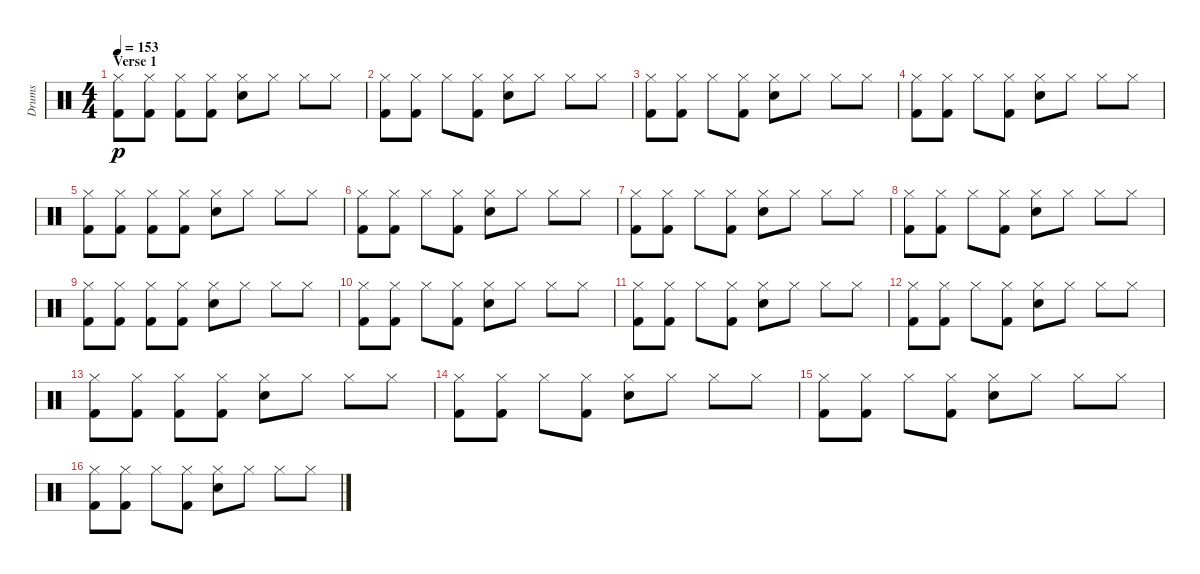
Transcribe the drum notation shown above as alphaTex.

\track ("Drums" "Drums") {instrument percussion}
\staff {score}
\articulation defaults
\ts (4 4)
\section ("" "Verse 1")
\tempo 153
\clef neutral
\ks c
("Hi-Hat (closed)" "Kick (hit) 2").8{dy p} ("Hi-Hat (closed)" "Kick (hit) 2").8 ("Hi-Hat (closed)" "Kick (hit) 2").8 ("Hi-Hat (closed)" "Kick (hit) 2").8 ("Hi-Hat (closed)" "Electric Snare (hit)").8 "Hi-Hat (closed)".8 "Hi-Hat (closed)".8 "Hi-Hat (closed)".8 |
("Hi-Hat (closed)" "Kick (hit) 2").8 ("Hi-Hat (closed)" "Kick (hit) 2").8 "Hi-Hat (closed)".8 ("Hi-Hat (closed)" "Kick (hit) 2").8 ("Hi-Hat (closed)" "Electric Snare (hit)").8 "Hi-Hat (closed)".8 "Hi-Hat (closed)".8 "Hi-Hat (closed)".8 |
("Hi-Hat (closed)" "Kick (hit) 2").8 ("Hi-Hat (closed)" "Kick (hit) 2").8 "Hi-Hat (closed)".8 ("Hi-Hat (closed)" "Kick (hit) 2").8 ("Hi-Hat (closed)" "Electric Snare (hit)").8 "Hi-Hat (closed)".8 "Hi-Hat (closed)".8 "Hi-Hat (closed)".8 |
("Hi-Hat (closed)" "Kick (hit) 2").8 ("Hi-Hat (closed)" "Kick (hit) 2").8 "Hi-Hat (closed)".8 ("Hi-Hat (closed)" "Kick (hit) 2").8 ("Hi-Hat (closed)" "Electric Snare (hit)").8 "Hi-Hat (closed)".8 "Hi-Hat (closed)".8 "Hi-Hat (closed)".8 |
("Hi-Hat (closed)" "Kick (hit) 2").8 ("Hi-Hat (closed)" "Kick (hit) 2").8 ("Hi-Hat (closed)" "Kick (hit) 2").8 ("Hi-Hat (closed)" "Kick (hit) 2").8 ("Hi-Hat (closed)" "Electric Snare (hit)").8 "Hi-Hat (closed)".8 "Hi-Hat (closed)".8 "Hi-Hat (closed)".8 |
("Hi-Hat (closed)" "Kick (hit) 2").8 ("Hi-Hat (closed)" "Kick (hit) 2").8 "Hi-Hat (closed)".8 ("Hi-Hat (closed)" "Kick (hit) 2").8 ("Hi-Hat (closed)" "Electric Snare (hit)").8 "Hi-Hat (closed)".8 "Hi-Hat (closed)".8 "Hi-Hat (closed)".8 |
("Hi-Hat (closed)" "Kick (hit) 2").8 ("Hi-Hat (closed)" "Kick (hit) 2").8 "Hi-Hat (closed)".8 ("Hi-Hat (closed)" "Kick (hit) 2").8 ("Hi-Hat (closed)" "Electric Snare (hit)").8 "Hi-Hat (closed)".8 "Hi-Hat (closed)".8 "Hi-Hat (closed)".8 |
("Hi-Hat (closed)" "Kick (hit) 2").8 ("Hi-Hat (closed)" "Kick (hit) 2").8 "Hi-Hat (closed)".8 ("Hi-Hat (closed)" "Kick (hit) 2").8 ("Hi-Hat (closed)" "Electric Snare (hit)").8 "Hi-Hat (closed)".8 "Hi-Hat (closed)".8 "Hi-Hat (closed)".8 |
("Hi-Hat (closed)" "Kick (hit) 2").8 ("Hi-Hat (closed)" "Kick (hit) 2").8 ("Hi-Hat (closed)" "Kick (hit) 2").8 ("Hi-Hat (closed)" "Kick (hit) 2").8 ("Hi-Hat (closed)" "Electric Snare (hit)").8 "Hi-Hat (closed)".8 "Hi-Hat (closed)".8 "Hi-Hat (closed)".8 |
("Hi-Hat (closed)" "Kick (hit) 2").8 ("Hi-Hat (closed)" "Kick (hit) 2").8 "Hi-Hat (closed)".8 ("Hi-Hat (closed)" "Kick (hit) 2").8 ("Hi-Hat (closed)" "Electric Snare (hit)").8 "Hi-Hat (closed)".8 "Hi-Hat (closed)".8 "Hi-Hat (closed)".8 |
("Hi-Hat (closed)" "Kick (hit) 2").8 ("Hi-Hat (closed)" "Kick (hit) 2").8 "Hi-Hat (closed)".8 ("Hi-Hat (closed)" "Kick (hit) 2").8 ("Hi-Hat (closed)" "Electric Snare (hit)").8 "Hi-Hat (closed)".8 "Hi-Hat (closed)".8 "Hi-Hat (closed)".8 |
("Hi-Hat (closed)" "Kick (hit) 2").8 ("Hi-Hat (closed)" "Kick (hit) 2").8 "Hi-Hat (closed)".8 ("Hi-Hat (closed)" "Kick (hit) 2").8 ("Hi-Hat (closed)" "Electric Snare (hit)").8 "Hi-Hat (closed)".8 "Hi-Hat (closed)".8 "Hi-Hat (closed)".8 |
("Hi-Hat (closed)" "Kick (hit) 2").8 ("Hi-Hat (closed)" "Kick (hit) 2").8 ("Hi-Hat (closed)" "Kick (hit) 2").8 ("Hi-Hat (closed)" "Kick (hit) 2").8 ("Hi-Hat (closed)" "Electric Snare (hit)").8 "Hi-Hat (closed)".8 "Hi-Hat (closed)".8 "Hi-Hat (closed)".8 |
("Hi-Hat (closed)" "Kick (hit) 2").8 ("Hi-Hat (closed)" "Kick (hit) 2").8 "Hi-Hat (closed)".8 ("Hi-Hat (closed)" "Kick (hit) 2").8 ("Hi-Hat (closed)" "Electric Snare (hit)").8 "Hi-Hat (closed)".8 "Hi-Hat (closed)".8 "Hi-Hat (closed)".8 |
("Hi-Hat (closed)" "Kick (hit) 2").8 ("Hi-Hat (closed)" "Kick (hit) 2").8 "Hi-Hat (closed)".8 ("Hi-Hat (closed)" "Kick (hit) 2").8 ("Hi-Hat (closed)" "Electric Snare (hit)").8 "Hi-Hat (closed)".8 "Hi-Hat (closed)".8 "Hi-Hat (closed)".8 |
("Hi-Hat (closed)" "Kick (hit) 2").8 ("Hi-Hat (closed)" "Kick (hit) 2").8 "Hi-Hat (closed)".8 ("Hi-Hat (closed)" "Kick (hit) 2").8 ("Hi-Hat (closed)" "Electric Snare (hit)").8 "Hi-Hat (closed)".8 "Hi-Hat (closed)".8 "Hi-Hat (closed)".8
